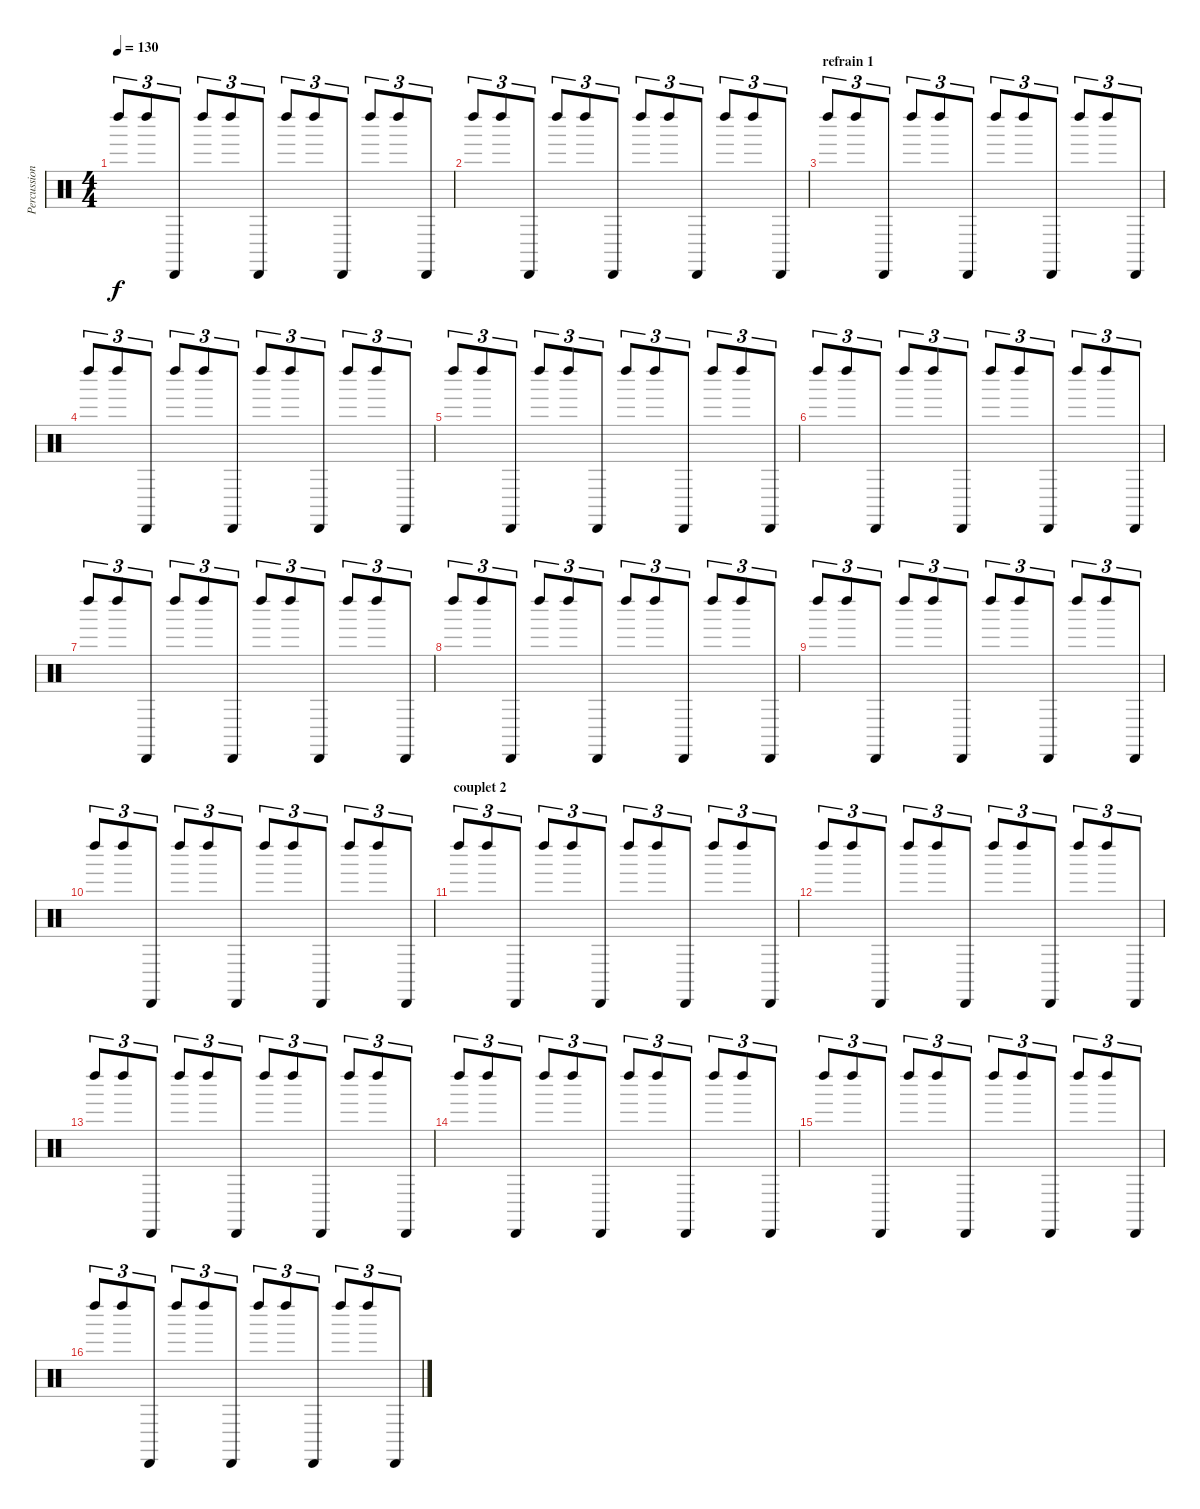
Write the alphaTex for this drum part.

\track ("Percussions Farrell Morris" "Percussion") {instrument percussion}
\staff {score}
\articulation defaults
\ts (4 4)
\tempo 130
\clef neutral
\ks c "Left Maraca (hit)".8{tu (3 2) dy f} "Left Maraca (hit)".8{tu (3 2)} "Cabasa (hit)".8{tu (3 2)} "Left Maraca (hit)".8{tu (3 2)} "Left Maraca (hit)".8{tu (3 2)} "Cabasa (hit)".8{tu (3 2)} "Left Maraca (hit)".8{tu (3 2)} "Left Maraca (hit)".8{tu (3 2)} "Cabasa (hit)".8{tu (3 2)} "Left Maraca (hit)".8{tu (3 2)} "Left Maraca (hit)".8{tu (3 2)} "Cabasa (hit)".8{tu (3 2)}
|
"Left Maraca (hit)".8{tu (3 2)} "Left Maraca (hit)".8{tu (3 2)} "Cabasa (hit)".8{tu (3 2)} "Left Maraca (hit)".8{tu (3 2)} "Left Maraca (hit)".8{tu (3 2)} "Cabasa (hit)".8{tu (3 2)} "Left Maraca (hit)".8{tu (3 2)} "Left Maraca (hit)".8{tu (3 2)} "Cabasa (hit)".8{tu (3 2)} "Left Maraca (hit)".8{tu (3 2)} "Left Maraca (hit)".8{tu (3 2)} "Cabasa (hit)".8{tu (3 2)} |
\section ("" "refrain 1")
"Left Maraca (hit)".8{tu (3 2)} "Left Maraca (hit)".8{tu (3 2)} "Cabasa (hit)".8{tu (3 2)} "Left Maraca (hit)".8{tu (3 2)} "Left Maraca (hit)".8{tu (3 2)} "Cabasa (hit)".8{tu (3 2)} "Left Maraca (hit)".8{tu (3 2)} "Left Maraca (hit)".8{tu (3 2)} "Cabasa (hit)".8{tu (3 2)} "Left Maraca (hit)".8{tu (3 2)} "Left Maraca (hit)".8{tu (3 2)} "Cabasa (hit)".8{tu (3 2)} |
"Left Maraca (hit)".8{tu (3 2)} "Left Maraca (hit)".8{tu (3 2)} "Cabasa (hit)".8{tu (3 2)} "Left Maraca (hit)".8{tu (3 2)} "Left Maraca (hit)".8{tu (3 2)} "Cabasa (hit)".8{tu (3 2)} "Left Maraca (hit)".8{tu (3 2)} "Left Maraca (hit)".8{tu (3 2)} "Cabasa (hit)".8{tu (3 2)} "Left Maraca (hit)".8{tu (3 2)} "Left Maraca (hit)".8{tu (3 2)} "Cabasa (hit)".8{tu (3 2)} |
"Left Maraca (hit)".8{tu (3 2)} "Left Maraca (hit)".8{tu (3 2)} "Cabasa (hit)".8{tu (3 2)} "Left Maraca (hit)".8{tu (3 2)} "Left Maraca (hit)".8{tu (3 2)} "Cabasa (hit)".8{tu (3 2)} "Left Maraca (hit)".8{tu (3 2)} "Left Maraca (hit)".8{tu (3 2)} "Cabasa (hit)".8{tu (3 2)} "Left Maraca (hit)".8{tu (3 2)} "Left Maraca (hit)".8{tu (3 2)} "Cabasa (hit)".8{tu (3 2)} |
"Left Maraca (hit)".8{tu (3 2)} "Left Maraca (hit)".8{tu (3 2)} "Cabasa (hit)".8{tu (3 2)} "Left Maraca (hit)".8{tu (3 2)} "Left Maraca (hit)".8{tu (3 2)} "Cabasa (hit)".8{tu (3 2)} "Left Maraca (hit)".8{tu (3 2)} "Left Maraca (hit)".8{tu (3 2)} "Cabasa (hit)".8{tu (3 2)} "Left Maraca (hit)".8{tu (3 2)} "Left Maraca (hit)".8{tu (3 2)} "Cabasa (hit)".8{tu (3 2)} |
"Left Maraca (hit)".8{tu (3 2)} "Left Maraca (hit)".8{tu (3 2)} "Cabasa (hit)".8{tu (3 2)} "Left Maraca (hit)".8{tu (3 2)} "Left Maraca (hit)".8{tu (3 2)} "Cabasa (hit)".8{tu (3 2)} "Left Maraca (hit)".8{tu (3 2)} "Left Maraca (hit)".8{tu (3 2)} "Cabasa (hit)".8{tu (3 2)} "Left Maraca (hit)".8{tu (3 2)} "Left Maraca (hit)".8{tu (3 2)} "Cabasa (hit)".8{tu (3 2)} |
"Left Maraca (hit)".8{tu (3 2)} "Left Maraca (hit)".8{tu (3 2)} "Cabasa (hit)".8{tu (3 2)} "Left Maraca (hit)".8{tu (3 2)} "Left Maraca (hit)".8{tu (3 2)} "Cabasa (hit)".8{tu (3 2)} "Left Maraca (hit)".8{tu (3 2)} "Left Maraca (hit)".8{tu (3 2)} "Cabasa (hit)".8{tu (3 2)} "Left Maraca (hit)".8{tu (3 2)} "Left Maraca (hit)".8{tu (3 2)} "Cabasa (hit)".8{tu (3 2)} |
"Left Maraca (hit)".8{tu (3 2)} "Left Maraca (hit)".8{tu (3 2)} "Cabasa (hit)".8{tu (3 2)} "Left Maraca (hit)".8{tu (3 2)} "Left Maraca (hit)".8{tu (3 2)} "Cabasa (hit)".8{tu (3 2)} "Left Maraca (hit)".8{tu (3 2)} "Left Maraca (hit)".8{tu (3 2)} "Cabasa (hit)".8{tu (3 2)} "Left Maraca (hit)".8{tu (3 2)} "Left Maraca (hit)".8{tu (3 2)} "Cabasa (hit)".8{tu (3 2)} |
"Left Maraca (hit)".8{tu (3 2)} "Left Maraca (hit)".8{tu (3 2)} "Cabasa (hit)".8{tu (3 2)} "Left Maraca (hit)".8{tu (3 2)} "Left Maraca (hit)".8{tu (3 2)} "Cabasa (hit)".8{tu (3 2)} "Left Maraca (hit)".8{tu (3 2)} "Left Maraca (hit)".8{tu (3 2)} "Cabasa (hit)".8{tu (3 2)} "Left Maraca (hit)".8{tu (3 2)} "Left Maraca (hit)".8{tu (3 2)} "Cabasa (hit)".8{tu (3 2)} |
\section ("" "couplet 2")
"Left Maraca (hit)".8{tu (3 2)} "Left Maraca (hit)".8{tu (3 2)} "Cabasa (hit)".8{tu (3 2)} "Left Maraca (hit)".8{tu (3 2)} "Left Maraca (hit)".8{tu (3 2)} "Cabasa (hit)".8{tu (3 2)} "Left Maraca (hit)".8{tu (3 2)} "Left Maraca (hit)".8{tu (3 2)} "Cabasa (hit)".8{tu (3 2)} "Left Maraca (hit)".8{tu (3 2)} "Left Maraca (hit)".8{tu (3 2)} "Cabasa (hit)".8{tu (3 2)} |
"Left Maraca (hit)".8{tu (3 2)} "Left Maraca (hit)".8{tu (3 2)} "Cabasa (hit)".8{tu (3 2)} "Left Maraca (hit)".8{tu (3 2)} "Left Maraca (hit)".8{tu (3 2)} "Cabasa (hit)".8{tu (3 2)} "Left Maraca (hit)".8{tu (3 2)} "Left Maraca (hit)".8{tu (3 2)} "Cabasa (hit)".8{tu (3 2)} "Left Maraca (hit)".8{tu (3 2)} "Left Maraca (hit)".8{tu (3 2)} "Cabasa (hit)".8{tu (3 2)} |
"Left Maraca (hit)".8{tu (3 2)} "Left Maraca (hit)".8{tu (3 2)} "Cabasa (hit)".8{tu (3 2)} "Left Maraca (hit)".8{tu (3 2)} "Left Maraca (hit)".8{tu (3 2)} "Cabasa (hit)".8{tu (3 2)} "Left Maraca (hit)".8{tu (3 2)} "Left Maraca (hit)".8{tu (3 2)} "Cabasa (hit)".8{tu (3 2)} "Left Maraca (hit)".8{tu (3 2)} "Left Maraca (hit)".8{tu (3 2)} "Cabasa (hit)".8{tu (3 2)} |
"Left Maraca (hit)".8{tu (3 2)} "Left Maraca (hit)".8{tu (3 2)} "Cabasa (hit)".8{tu (3 2)} "Left Maraca (hit)".8{tu (3 2)} "Left Maraca (hit)".8{tu (3 2)} "Cabasa (hit)".8{tu (3 2)} "Left Maraca (hit)".8{tu (3 2)} "Left Maraca (hit)".8{tu (3 2)} "Cabasa (hit)".8{tu (3 2)} "Left Maraca (hit)".8{tu (3 2)} "Left Maraca (hit)".8{tu (3 2)} "Cabasa (hit)".8{tu (3 2)} |
"Left Maraca (hit)".8{tu (3 2)} "Left Maraca (hit)".8{tu (3 2)} "Cabasa (hit)".8{tu (3 2)} "Left Maraca (hit)".8{tu (3 2)} "Left Maraca (hit)".8{tu (3 2)} "Cabasa (hit)".8{tu (3 2)} "Left Maraca (hit)".8{tu (3 2)} "Left Maraca (hit)".8{tu (3 2)} "Cabasa (hit)".8{tu (3 2)} "Left Maraca (hit)".8{tu (3 2)} "Left Maraca (hit)".8{tu (3 2)} "Cabasa (hit)".8{tu (3 2)} |
"Left Maraca (hit)".8{tu (3 2)} "Left Maraca (hit)".8{tu (3 2)} "Cabasa (hit)".8{tu (3 2)} "Left Maraca (hit)".8{tu (3 2)} "Left Maraca (hit)".8{tu (3 2)} "Cabasa (hit)".8{tu (3 2)} "Left Maraca (hit)".8{tu (3 2)} "Left Maraca (hit)".8{tu (3 2)} "Cabasa (hit)".8{tu (3 2)} "Left Maraca (hit)".8{tu (3 2)} "Left Maraca (hit)".8{tu (3 2)} "Cabasa (hit)".8{tu (3 2)}
